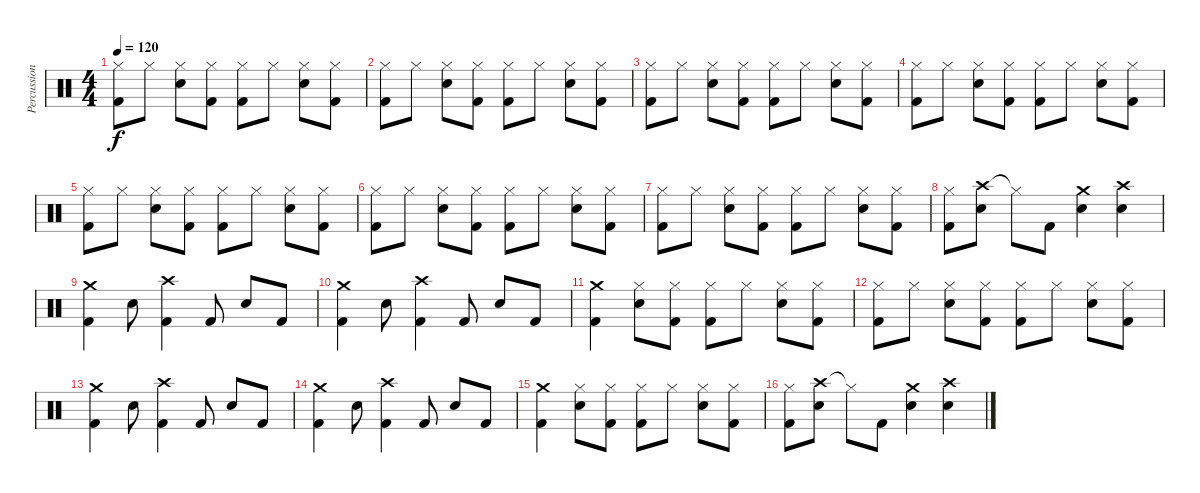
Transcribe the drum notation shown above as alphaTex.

\track ("Percussion" "Percussion") {instrument percussion}
\staff {score}
\articulation defaults
\ts (4 4)
\tempo 120
\clef neutral
\ks c
("Hi-Hat (closed)" "Kick (hit) 2").8{dy f} "Hi-Hat (closed)".8 ("Hi-Hat (closed)" "Electric Snare (hit)").8 ("Hi-Hat (closed)" "Kick (hit) 2").8 ("Hi-Hat (closed)" "Kick (hit) 2").8 "Hi-Hat (closed)".8 ("Hi-Hat (closed)" "Electric Snare (hit)").8 ("Hi-Hat (closed)" "Kick (hit) 2").8 |
("Hi-Hat (closed)" "Kick (hit) 2").8 "Hi-Hat (closed)".8 ("Hi-Hat (closed)" "Electric Snare (hit)").8 ("Hi-Hat (closed)" "Kick (hit) 2").8 ("Hi-Hat (closed)" "Kick (hit) 2").8 "Hi-Hat (closed)".8 ("Hi-Hat (closed)" "Electric Snare (hit)").8 ("Hi-Hat (closed)" "Kick (hit) 2").8 |
("Hi-Hat (closed)" "Kick (hit) 2").8 "Hi-Hat (closed)".8 ("Hi-Hat (closed)" "Electric Snare (hit)").8 ("Hi-Hat (closed)" "Kick (hit) 2").8 ("Hi-Hat (closed)" "Kick (hit) 2").8 "Hi-Hat (closed)".8 ("Hi-Hat (closed)" "Electric Snare (hit)").8 ("Hi-Hat (closed)" "Kick (hit) 2").8 |
("Hi-Hat (closed)" "Kick (hit) 2").8 "Hi-Hat (closed)".8 ("Hi-Hat (closed)" "Electric Snare (hit)").8 ("Hi-Hat (closed)" "Kick (hit) 2").8 ("Hi-Hat (closed)" "Kick (hit) 2").8 "Hi-Hat (closed)".8 ("Hi-Hat (closed)" "Electric Snare (hit)").8 ("Hi-Hat (closed)" "Kick (hit) 2").8 |
("Hi-Hat (closed)" "Kick (hit) 2").8 "Hi-Hat (closed)".8 ("Hi-Hat (closed)" "Electric Snare (hit)").8 ("Hi-Hat (closed)" "Kick (hit) 2").8 ("Hi-Hat (closed)" "Kick (hit) 2").8 "Hi-Hat (closed)".8 ("Hi-Hat (closed)" "Electric Snare (hit)").8 ("Hi-Hat (closed)" "Kick (hit) 2").8 |
("Hi-Hat (closed)" "Kick (hit) 2").8 "Hi-Hat (closed)".8 ("Hi-Hat (closed)" "Electric Snare (hit)").8 ("Hi-Hat (closed)" "Kick (hit) 2").8 ("Hi-Hat (closed)" "Kick (hit) 2").8 "Hi-Hat (closed)".8 ("Hi-Hat (closed)" "Electric Snare (hit)").8 ("Hi-Hat (closed)" "Kick (hit) 2").8 |
("Hi-Hat (closed)" "Kick (hit) 2").8 "Hi-Hat (closed)".8 ("Hi-Hat (closed)" "Electric Snare (hit)").8 ("Hi-Hat (closed)" "Kick (hit) 2").8 ("Hi-Hat (closed)" "Kick (hit) 2").8 "Hi-Hat (closed)".8 ("Hi-Hat (closed)" "Electric Snare (hit)").8 ("Hi-Hat (closed)" "Kick (hit) 2").8 |
("Hi-Hat (closed)" "Kick (hit) 2").8 ("Crash high (hit)" "Electric Snare (hit)").8 "Hi-Hat (closed)"{t}.8 "Kick (hit) 2".8 ("Crash medium (hit)" "Electric Snare (hit)").4 ("Crash high (hit)" "Electric Snare (hit)").4 |
("Crash medium (hit)" "Kick (hit) 2").4 "Electric Snare (hit)".8 ("Crash high (hit)" "Kick (hit) 2").4 "Kick (hit) 2".8 "Electric Snare (hit)".8 "Kick (hit) 2".8 |
("Crash medium (hit)" "Kick (hit) 2").4 "Electric Snare (hit)".8 ("Crash high (hit)" "Kick (hit) 2").4 "Kick (hit) 2".8 "Electric Snare (hit)".8 "Kick (hit) 2".8 |
("Crash medium (hit)" "Kick (hit) 2").4 ("Hi-Hat (closed)" "Electric Snare (hit)").8 ("Hi-Hat (closed)" "Kick (hit) 2").8 ("Hi-Hat (closed)" "Kick (hit) 2").8 "Hi-Hat (closed)".8 ("Hi-Hat (closed)" "Electric Snare (hit)").8 ("Hi-Hat (closed)" "Kick (hit) 2").8 |
("Hi-Hat (closed)" "Kick (hit) 2").8 "Hi-Hat (closed)".8 ("Hi-Hat (closed)" "Electric Snare (hit)").8 ("Hi-Hat (closed)" "Kick (hit) 2").8 ("Hi-Hat (closed)" "Kick (hit) 2").8 "Hi-Hat (closed)".8 ("Hi-Hat (closed)" "Electric Snare (hit)").8 ("Hi-Hat (closed)" "Kick (hit) 2").8 |
("Crash medium (hit)" "Kick (hit) 2").4 "Electric Snare (hit)".8 ("Crash high (hit)" "Kick (hit) 2").4 "Kick (hit) 2".8 "Electric Snare (hit)".8 "Kick (hit) 2".8 |
("Crash medium (hit)" "Kick (hit) 2").4 "Electric Snare (hit)".8 ("Crash high (hit)" "Kick (hit) 2").4 "Kick (hit) 2".8 "Electric Snare (hit)".8 "Kick (hit) 2".8 |
("Crash medium (hit)" "Kick (hit) 2").4 ("Hi-Hat (closed)" "Electric Snare (hit)").8 ("Hi-Hat (closed)" "Kick (hit) 2").8 ("Hi-Hat (closed)" "Kick (hit) 2").8 "Hi-Hat (closed)".8 ("Hi-Hat (closed)" "Electric Snare (hit)").8 ("Hi-Hat (closed)" "Kick (hit) 2").8 |
("Hi-Hat (closed)" "Kick (hit) 2").8 ("Crash high (hit)" "Electric Snare (hit)").8 "Hi-Hat (closed)"{t}.8 "Kick (hit) 2".8 ("Crash medium (hit)" "Electric Snare (hit)").4 ("Crash high (hit)" "Electric Snare (hit)").4
